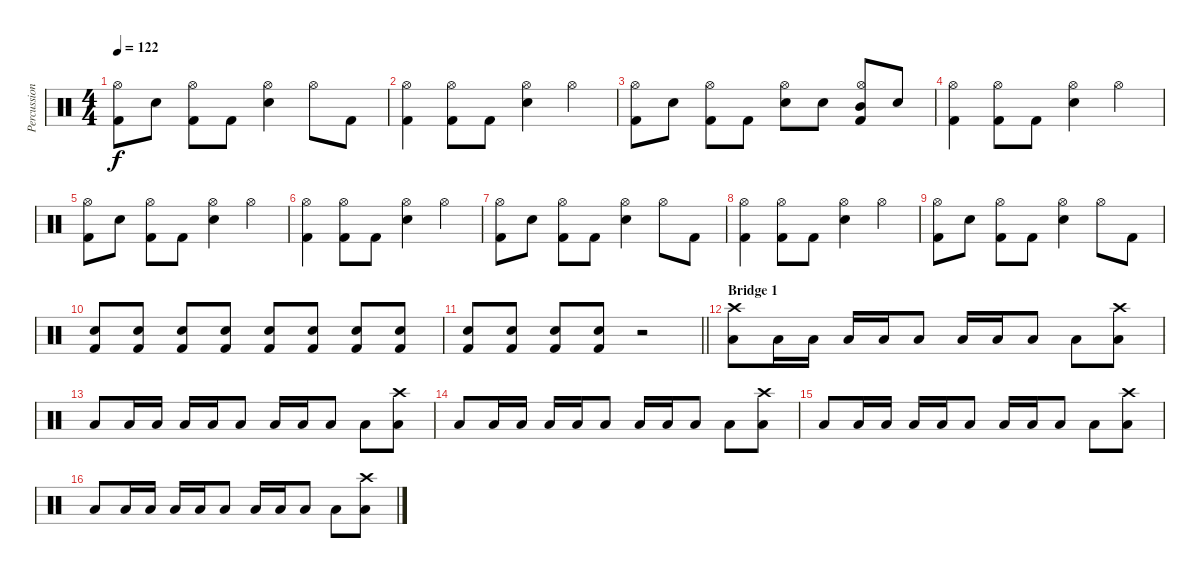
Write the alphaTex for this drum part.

\track ("Percussion" "Percussion") {instrument percussion}
\staff {score}
\articulation defaults
\ts (4 4)
\tempo 122
\clef neutral
\ks c
("Kick (hit) 2" "Hi-Hat (open)").8{dy f} "Electric Snare (hit)".8 ("Kick (hit) 2" "Hi-Hat (open)").8 "Kick (hit) 2".8 ("Electric Snare (hit)" "Hi-Hat (open)").4 "Hi-Hat (open)".8 "Kick (hit) 2".8 |
("Kick (hit) 2" "Hi-Hat (open)").4 ("Kick (hit) 2" "Hi-Hat (open)").8 "Kick (hit) 2".8 ("Electric Snare (hit)" "Hi-Hat (open)").4 "Hi-Hat (open)".4 |
("Kick (hit) 2" "Hi-Hat (open)").8 "Electric Snare (hit)".8 ("Kick (hit) 2" "Hi-Hat (open)").8 "Kick (hit) 2".8 ("Electric Snare (hit)" "Hi-Hat (open)").8 "Electric Snare (hit)".8 ("Kick (hit) 2" "Mid Tom (hit)" "Hi-Hat (open)").8 "Electric Snare (hit)".8 |
("Kick (hit) 2" "Hi-Hat (open)").4 ("Kick (hit) 2" "Hi-Hat (open)").8 "Kick (hit) 2".8 ("Electric Snare (hit)" "Hi-Hat (open)").4 "Hi-Hat (open)".4 |
("Kick (hit) 2" "Hi-Hat (open)").8 "Electric Snare (hit)".8 ("Kick (hit) 2" "Hi-Hat (open)").8 "Kick (hit) 2".8 ("Electric Snare (hit)" "Hi-Hat (open)").4 "Hi-Hat (open)".4 |
("Kick (hit) 2" "Hi-Hat (open)").4 ("Kick (hit) 2" "Hi-Hat (open)").8 "Kick (hit) 2".8 ("Electric Snare (hit)" "Hi-Hat (open)").4 "Hi-Hat (open)".4 |
("Kick (hit) 2" "Hi-Hat (open)").8 "Electric Snare (hit)".8 ("Kick (hit) 2" "Hi-Hat (open)").8 "Kick (hit) 2".8 ("Electric Snare (hit)" "Hi-Hat (open)").4 "Hi-Hat (open)".8 "Kick (hit) 2".8 |
("Kick (hit) 2" "Hi-Hat (open)").4 ("Kick (hit) 2" "Hi-Hat (open)").8 "Kick (hit) 2".8 ("Electric Snare (hit)" "Hi-Hat (open)").4 "Hi-Hat (open)".4 |
("Kick (hit) 2" "Hi-Hat (open)").8 "Electric Snare (hit)".8 ("Kick (hit) 2" "Hi-Hat (open)").8 "Kick (hit) 2".8 ("Electric Snare (hit)" "Hi-Hat (open)").4 "Hi-Hat (open)".8 "Kick (hit) 2".8 |
("Kick (hit) 2" "Electric Snare (hit)").8 ("Kick (hit) 2" "Electric Snare (hit)").8 ("Kick (hit) 2" "Electric Snare (hit)").8 ("Kick (hit) 2" "Electric Snare (hit)").8 ("Kick (hit) 2" "Electric Snare (hit)").8 ("Kick (hit) 2" "Electric Snare (hit)").8 ("Kick (hit) 2" "Electric Snare (hit)").8 ("Kick (hit) 2" "Electric Snare (hit)").8 |
\barLineRight lightlight
("Kick (hit) 2" "Electric Snare (hit)").8 ("Kick (hit) 2" "Electric Snare (hit)").8 ("Kick (hit) 2" "Electric Snare (hit)").8 ("Kick (hit) 2" "Electric Snare (hit)").8 r.2 |
\section ("" "Bridge 1")
("Low Tom (hit)" "Crash high (hit)").8 "Low Tom (hit)".16 "Low Tom (hit)".16 "Low Tom (hit)".16 "Low Tom (hit)".16 "Low Tom (hit)".8 "Low Tom (hit)".16 "Low Tom (hit)".16 "Low Tom (hit)".8 "Low Tom (hit)".8 ("Low Tom (hit)" "Crash high (hit)").8 |
"Low Tom (hit)".8 "Low Tom (hit)".16 "Low Tom (hit)".16 "Low Tom (hit)".16 "Low Tom (hit)".16 "Low Tom (hit)".8 "Low Tom (hit)".16 "Low Tom (hit)".16 "Low Tom (hit)".8 "Low Tom (hit)".8 ("Low Tom (hit)" "Crash high (hit)").8 |
"Low Tom (hit)".8 "Low Tom (hit)".16 "Low Tom (hit)".16 "Low Tom (hit)".16 "Low Tom (hit)".16 "Low Tom (hit)".8 "Low Tom (hit)".16 "Low Tom (hit)".16 "Low Tom (hit)".8 "Low Tom (hit)".8 ("Low Tom (hit)" "Crash high (hit)").8 |
"Low Tom (hit)".8 "Low Tom (hit)".16 "Low Tom (hit)".16 "Low Tom (hit)".16 "Low Tom (hit)".16 "Low Tom (hit)".8 "Low Tom (hit)".16 "Low Tom (hit)".16 "Low Tom (hit)".8 "Low Tom (hit)".8 ("Low Tom (hit)" "Crash high (hit)").8 |
"Low Tom (hit)".8 "Low Tom (hit)".16 "Low Tom (hit)".16 "Low Tom (hit)".16 "Low Tom (hit)".16 "Low Tom (hit)".8 "Low Tom (hit)".16 "Low Tom (hit)".16 "Low Tom (hit)".8 "Low Tom (hit)".8 ("Low Tom (hit)" "Crash high (hit)").8
